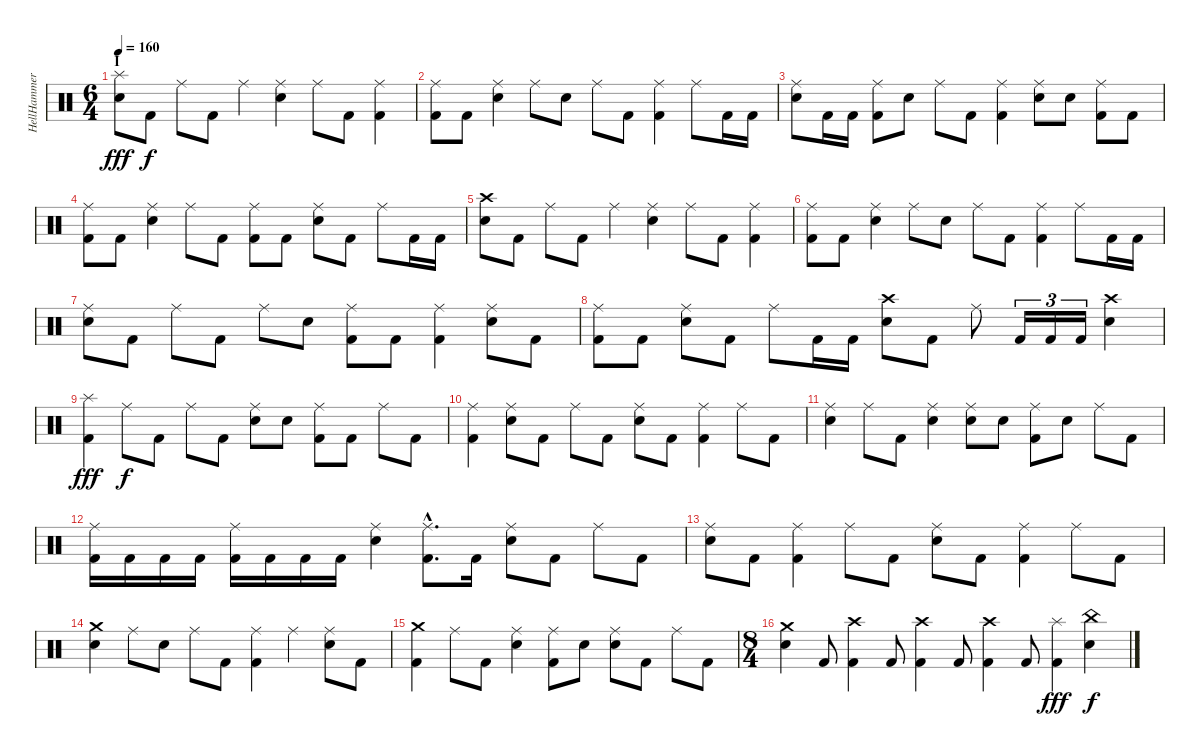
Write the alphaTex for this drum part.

\track ("HellHammer" "HellHammer") {instrument percussion}
\staff {score}
\articulation defaults
\ts (6 4)
\section ("" "I")
\tempo 160
\clef neutral
\ks c
("Electric Snare (hit)" "Splash (hit)").8{dy fff} "Kick (hit) 2".8{dy f} "Ride (middle)".8 "Kick (hit) 2".8 "Ride (middle)".4 ("Electric Snare (hit)" "Ride (middle)").4 "Ride (middle)".8 "Kick (hit) 2".8 ("Kick (hit) 2" "Ride (middle)").4 |
("Kick (hit) 2" "Ride (middle)").8 "Kick (hit) 2".8 ("Electric Snare (hit)" "Ride (middle)").4 "Ride (middle)".8 "Electric Snare (hit)".8 "Ride (middle)".8 "Kick (hit) 2".8 ("Kick (hit) 2" "Ride (middle)").4 "Ride (middle)".8 "Kick (hit) 2".16 "Kick (hit) 2".16 |
("Electric Snare (hit)" "Ride (middle)").8 "Kick (hit) 2".16 "Kick (hit) 2".16 ("Kick (hit) 2" "Ride (middle)").8 "Electric Snare (hit)".8 "Ride (middle)".8 "Kick (hit) 2".8 ("Kick (hit) 2" "Ride (middle)").4 ("Electric Snare (hit)" "Ride (middle)").8 "Electric Snare (hit)".8 ("Kick (hit) 2" "Ride (middle)").8 "Kick (hit) 2".8 |
("Kick (hit) 2" "Ride (middle)").8 "Kick (hit) 2".8 ("Electric Snare (hit)" "Ride (middle)").4 "Ride (middle)".8 "Kick (hit) 2".8 ("Kick (hit) 2" "Ride (middle)").8 "Kick (hit) 2".8 ("Electric Snare (hit)" "Ride (middle)").8 "Kick (hit) 2".8 "Ride (middle)".8 "Kick (hit) 2".16 "Kick (hit) 2".16 |
("Electric Snare (hit)" "Crash high (hit)").8 "Kick (hit) 2".8 "Ride (middle)".8 "Kick (hit) 2".8 "Ride (middle)".4 ("Electric Snare (hit)" "Ride (middle)").4 "Ride (middle)".8 "Kick (hit) 2".8 ("Kick (hit) 2" "Ride (middle)").4 |
("Kick (hit) 2" "Ride (middle)").8 "Kick (hit) 2".8 ("Electric Snare (hit)" "Ride (middle)").4 "Ride (middle)".8 "Electric Snare (hit)".8 "Ride (middle)".8 "Kick (hit) 2".8 ("Kick (hit) 2" "Ride (middle)").4 "Ride (middle)".8 "Kick (hit) 2".16 "Kick (hit) 2".16 |
("Electric Snare (hit)" "Ride (middle)").8 "Kick (hit) 2".8 "Ride (middle)".8 "Kick (hit) 2".8 "Ride (middle)".8 "Electric Snare (hit)".8 ("Kick (hit) 2" "Ride (middle)").8 "Kick (hit) 2".8 ("Kick (hit) 2" "Ride (middle)").4 ("Electric Snare (hit)" "Ride (middle)").8 "Kick (hit) 2".8 |
("Kick (hit) 2" "Ride (middle)").8 "Kick (hit) 2".8 ("Electric Snare (hit)" "Ride (middle)").8 "Kick (hit) 2".8 "Ride (middle)".8 "Kick (hit) 2".16 "Kick (hit) 2".16 ("Electric Snare (hit)" "Crash high (hit)").8 "Kick (hit) 2".8 "Ride (middle)".8 "Kick (hit) 2".16{tu (3 2)} "Kick (hit) 2".16{tu (3 2)} "Kick (hit) 2".16{tu (3 2)} ("Electric Snare (hit)" "Crash high (hit)").4 |
("Kick (hit) 2" "Splash (hit)").4{dy fff} "Ride (middle)".8{dy f} "Kick (hit) 2".8 "Ride (middle)".8 "Kick (hit) 2".8 ("Electric Snare (hit)" "Ride (middle)").8 "Electric Snare (hit)".8 ("Kick (hit) 2" "Ride (middle)").8 "Kick (hit) 2".8 "Ride (middle)".8 "Kick (hit) 2".8 |
("Kick (hit) 2" "Ride (middle)").4 ("Electric Snare (hit)" "Ride (middle)").8 "Kick (hit) 2".8 "Ride (middle)".8 "Kick (hit) 2".8 ("Electric Snare (hit)" "Ride (middle)").8 "Kick (hit) 2".8 ("Kick (hit) 2" "Ride (middle)").4 "Ride (middle)".8 "Kick (hit) 2".8 |
("Electric Snare (hit)" "Ride (middle)").4 "Ride (middle)".8 "Kick (hit) 2".8 ("Electric Snare (hit)" "Ride (middle)").4 ("Electric Snare (hit)" "Ride (middle)").8 "Electric Snare (hit)".8 ("Kick (hit) 2" "Ride (middle)").8 "Electric Snare (hit)".8 "Ride (middle)".8 "Kick (hit) 2".8 |
("Kick (hit) 2" "Ride (middle)").16 "Kick (hit) 2".16 "Kick (hit) 2".16 "Kick (hit) 2".16 ("Kick (hit) 2" "Ride (middle)").16 "Kick (hit) 2".16 "Kick (hit) 2".16 "Kick (hit) 2".16 ("Electric Snare (hit)" "Ride (middle)").4 ("Kick (hit) 2"{hac} "Ride (middle)"{hac}).8{d} "Kick (hit) 2".16 ("Electric Snare (hit)" "Ride (middle)").8 "Kick (hit) 2".8 "Ride (middle)".8 "Kick (hit) 2".8 |
("Electric Snare (hit)" "Ride (middle)").8 "Kick (hit) 2".8 ("Kick (hit) 2" "Ride (middle)").4 "Ride (middle)".8 "Kick (hit) 2".8 ("Electric Snare (hit)" "Ride (middle)").8 "Kick (hit) 2".8 ("Kick (hit) 2" "Ride (middle)").4 "Ride (middle)".8 "Kick (hit) 2".8 |
("Electric Snare (hit)" "Crash medium (hit)").4 "Ride (middle)".8 "Electric Snare (hit)".8 "Ride (middle)".8 "Kick (hit) 2".8 ("Kick (hit) 2" "Ride (middle)").4 "Ride (middle)".4 ("Electric Snare (hit)" "Ride (middle)").8 "Kick (hit) 2".8 |
("Kick (hit) 2" "Crash medium (hit)").4 "Ride (middle)".8 "Kick (hit) 2".8 ("Electric Snare (hit)" "Ride (middle)").4 ("Kick (hit) 2" "Ride (middle)").8 "Electric Snare (hit)".8 ("Electric Snare (hit)" "Ride (middle)").8 "Kick (hit) 2".8 "Ride (middle)".8 "Kick (hit) 2".8 |
\ts (8 4)
("Electric Snare (hit)" "Crash medium (hit)").4 "Kick (hit) 2".8 ("Kick (hit) 2" "Crash high (hit)").4 "Kick (hit) 2".8 ("Kick (hit) 2" "Crash high (hit)").4 "Kick (hit) 2".8 ("Kick (hit) 2" "Crash high (hit)").4 "Kick (hit) 2".8 ("Kick (hit) 2" "Splash (hit)").4{dy fff} ("Electric Snare (hit)" "China (hit)").4{dy f}
